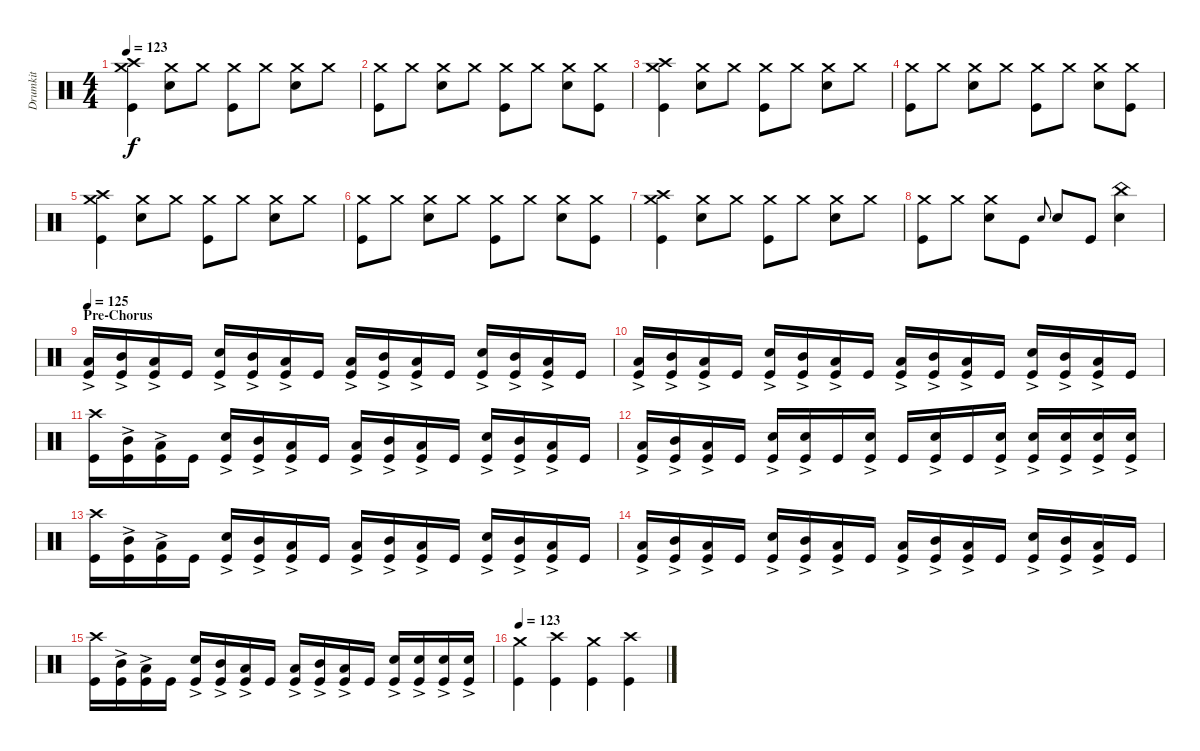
\track ("Drumkit" "Drumkit") {instrument percussion}
\staff {score}
\articulation defaults
\ts (4 4)
\tempo 123
\clef neutral
\ks c
("Kick (hit)" "Crash medium (hit)" "Crash high (hit)").4{dy f} ("Snare (hit) 2" "Crash medium (hit)").8 "Crash medium (hit)".8 ("Kick (hit)" "Crash medium (hit)").8 "Crash medium (hit)".8 ("Snare (hit) 2" "Crash medium (hit)").8 "Crash medium (hit)".8 |
("Kick (hit)" "Crash medium (hit)").8 "Crash medium (hit)".8 ("Snare (hit) 2" "Crash medium (hit)").8 "Crash medium (hit)".8 ("Kick (hit)" "Crash medium (hit)").8 "Crash medium (hit)".8 ("Snare (hit) 2" "Crash medium (hit)").8 ("Crash medium (hit)" "Kick (hit)").8 |
("Kick (hit)" "Crash medium (hit)" "Crash high (hit)").4 ("Snare (hit) 2" "Crash medium (hit)").8 "Crash medium (hit)".8 ("Kick (hit)" "Crash medium (hit)").8 "Crash medium (hit)".8 ("Snare (hit) 2" "Crash medium (hit)").8 "Crash medium (hit)".8 |
("Kick (hit)" "Crash medium (hit)").8 "Crash medium (hit)".8 ("Snare (hit) 2" "Crash medium (hit)").8 "Crash medium (hit)".8 ("Kick (hit)" "Crash medium (hit)").8 "Crash medium (hit)".8 ("Snare (hit) 2" "Crash medium (hit)").8 ("Crash medium (hit)" "Kick (hit)").8 |
("Kick (hit)" "Crash medium (hit)" "Crash high (hit)").4 ("Snare (hit) 2" "Crash medium (hit)").8 "Crash medium (hit)".8 ("Kick (hit)" "Crash medium (hit)").8 "Crash medium (hit)".8 ("Snare (hit) 2" "Crash medium (hit)").8 "Crash medium (hit)".8 |
("Kick (hit)" "Crash medium (hit)").8 "Crash medium (hit)".8 ("Snare (hit) 2" "Crash medium (hit)").8 "Crash medium (hit)".8 ("Kick (hit)" "Crash medium (hit)").8 "Crash medium (hit)".8 ("Snare (hit) 2" "Crash medium (hit)").8 ("Crash medium (hit)" "Kick (hit)").8 |
("Kick (hit)" "Crash medium (hit)" "Crash high (hit)").4 ("Snare (hit) 2" "Crash medium (hit)").8 "Crash medium (hit)".8 ("Kick (hit)" "Crash medium (hit)").8 "Crash medium (hit)".8 ("Snare (hit) 2" "Crash medium (hit)").8 "Crash medium (hit)".8 |
("Kick (hit)" "Crash medium (hit)").8 "Crash medium (hit)".8 ("Snare (hit) 2" "Crash medium (hit)").8 "Kick (hit)".8 "Snare (hit)".8{gr onbeat} "Snare (hit) 2".8 "Kick (hit)".8 ("Snare (hit) 2" "China (hit)").4 |
\section ("" "Pre-Chorus")
\tempo 125
("Kick (hit)" "Low Tom (hit)"{ac}).16 ("Kick (hit)" "Mid Tom (hit)"{ac}).16 ("Kick (hit)" "Low Tom (hit)"{ac}).16 "Kick (hit)".16 ("Kick (hit)" "Snare (hit) 2"{ac}).16 ("Kick (hit)" "Mid Tom (hit)"{ac}).16 ("Kick (hit)" "Low Tom (hit)"{ac}).16 "Kick (hit)".16 ("Kick (hit)" "Low Tom (hit)"{ac}).16 ("Kick (hit)" "Mid Tom (hit)"{ac}).16 ("Kick (hit)" "Low Tom (hit)"{ac}).16 "Kick (hit)".16 ("Kick (hit)" "Snare (hit) 2"{ac}).16 ("Kick (hit)" "Mid Tom (hit)"{ac}).16 ("Kick (hit)" "Low Tom (hit)"{ac}).16 "Kick (hit)".16 |
("Kick (hit)" "Low Tom (hit)"{ac}).16 ("Kick (hit)" "Mid Tom (hit)"{ac}).16 ("Kick (hit)" "Low Tom (hit)"{ac}).16 "Kick (hit)".16 ("Kick (hit)" "Snare (hit) 2"{ac}).16 ("Kick (hit)" "Mid Tom (hit)"{ac}).16 ("Kick (hit)" "Low Tom (hit)"{ac}).16 "Kick (hit)".16 ("Kick (hit)" "Low Tom (hit)"{ac}).16 ("Kick (hit)" "Mid Tom (hit)"{ac}).16 ("Kick (hit)" "Low Tom (hit)"{ac}).16 "Kick (hit)".16 ("Kick (hit)" "Snare (hit) 2"{ac}).16 ("Kick (hit)" "Mid Tom (hit)"{ac}).16 ("Kick (hit)" "Low Tom (hit)"{ac}).16 "Kick (hit)".16 |
("Kick (hit)" "Crash high (hit)").16 ("Kick (hit)" "Mid Tom (hit)"{ac}).16 ("Kick (hit)" "Low Tom (hit)"{ac}).16 "Kick (hit)".16 ("Kick (hit)" "Snare (hit) 2"{ac}).16 ("Kick (hit)" "Mid Tom (hit)"{ac}).16 ("Kick (hit)" "Low Tom (hit)"{ac}).16 "Kick (hit)".16 ("Kick (hit)" "Low Tom (hit)"{ac}).16 ("Kick (hit)" "Mid Tom (hit)"{ac}).16 ("Kick (hit)" "Low Tom (hit)"{ac}).16 "Kick (hit)".16 ("Kick (hit)" "Snare (hit) 2"{ac}).16 ("Kick (hit)" "Mid Tom (hit)"{ac}).16 ("Kick (hit)" "Low Tom (hit)"{ac}).16 "Kick (hit)".16 |
("Kick (hit)" "Low Tom (hit)"{ac}).16 ("Kick (hit)" "Mid Tom (hit)"{ac}).16 ("Kick (hit)" "Low Tom (hit)"{ac}).16 "Kick (hit)".16 ("Kick (hit)" "Snare (hit) 2"{ac}).16 ("Kick (hit)" "Snare (hit) 2"{ac}).16 "Kick (hit)".16 ("Kick (hit)" "Snare (hit) 2"{ac}).16 "Kick (hit)".16 ("Kick (hit)" "Snare (hit) 2"{ac}).16 "Kick (hit)".16 ("Kick (hit)" "Snare (hit) 2"{ac}).16 ("Kick (hit)" "Snare (hit) 2"{ac}).16 ("Kick (hit)" "Snare (hit) 2"{ac}).16 ("Kick (hit)" "Snare (hit) 2"{ac}).16 ("Kick (hit)" "Snare (hit) 2"{ac}).16 |
("Kick (hit)" "Crash high (hit)").16 ("Kick (hit)" "Mid Tom (hit)"{ac}).16 ("Kick (hit)" "Low Tom (hit)"{ac}).16 "Kick (hit)".16 ("Kick (hit)" "Snare (hit) 2"{ac}).16 ("Kick (hit)" "Mid Tom (hit)"{ac}).16 ("Kick (hit)" "Low Tom (hit)"{ac}).16 "Kick (hit)".16 ("Kick (hit)" "Low Tom (hit)"{ac}).16 ("Kick (hit)" "Mid Tom (hit)"{ac}).16 ("Kick (hit)" "Low Tom (hit)"{ac}).16 "Kick (hit)".16 ("Kick (hit)" "Snare (hit) 2"{ac}).16 ("Kick (hit)" "Mid Tom (hit)"{ac}).16 ("Kick (hit)" "Low Tom (hit)"{ac}).16 "Kick (hit)".16 |
("Kick (hit)" "Low Tom (hit)"{ac}).16 ("Kick (hit)" "Mid Tom (hit)"{ac}).16 ("Kick (hit)" "Low Tom (hit)"{ac}).16 "Kick (hit)".16 ("Kick (hit)" "Snare (hit) 2"{ac}).16 ("Kick (hit)" "Mid Tom (hit)"{ac}).16 ("Kick (hit)" "Low Tom (hit)"{ac}).16 "Kick (hit)".16 ("Kick (hit)" "Low Tom (hit)"{ac}).16 ("Kick (hit)" "Mid Tom (hit)"{ac}).16 ("Kick (hit)" "Low Tom (hit)"{ac}).16 "Kick (hit)".16 ("Kick (hit)" "Snare (hit) 2"{ac}).16 ("Kick (hit)" "Mid Tom (hit)"{ac}).16 ("Kick (hit)" "Low Tom (hit)"{ac}).16 "Kick (hit)".16 |
("Kick (hit)" "Crash high (hit)").16 ("Kick (hit)" "Mid Tom (hit)"{ac}).16 ("Kick (hit)" "Low Tom (hit)"{ac}).16 "Kick (hit)".16 ("Kick (hit)" "Snare (hit) 2"{ac}).16 ("Kick (hit)" "Mid Tom (hit)"{ac}).16 ("Kick (hit)" "Low Tom (hit)"{ac}).16 "Kick (hit)".16 ("Kick (hit)" "Low Tom (hit)"{ac}).16 ("Kick (hit)" "Mid Tom (hit)"{ac}).16 ("Kick (hit)" "Low Tom (hit)"{ac}).16 "Kick (hit)".16 ("Kick (hit)" "Snare (hit) 2"{ac}).16 ("Kick (hit)" "Snare (hit) 2"{ac}).16 ("Kick (hit)" "Snare (hit) 2"{ac}).16 ("Kick (hit)" "Snare (hit) 2"{ac}).16 |
\tempo 123
("Crash medium (hit)" "Kick (hit)").4 ("Crash high (hit)" "Kick (hit)").4 ("Crash medium (hit)" "Kick (hit)").4 ("Crash high (hit)" "Kick (hit)").4
